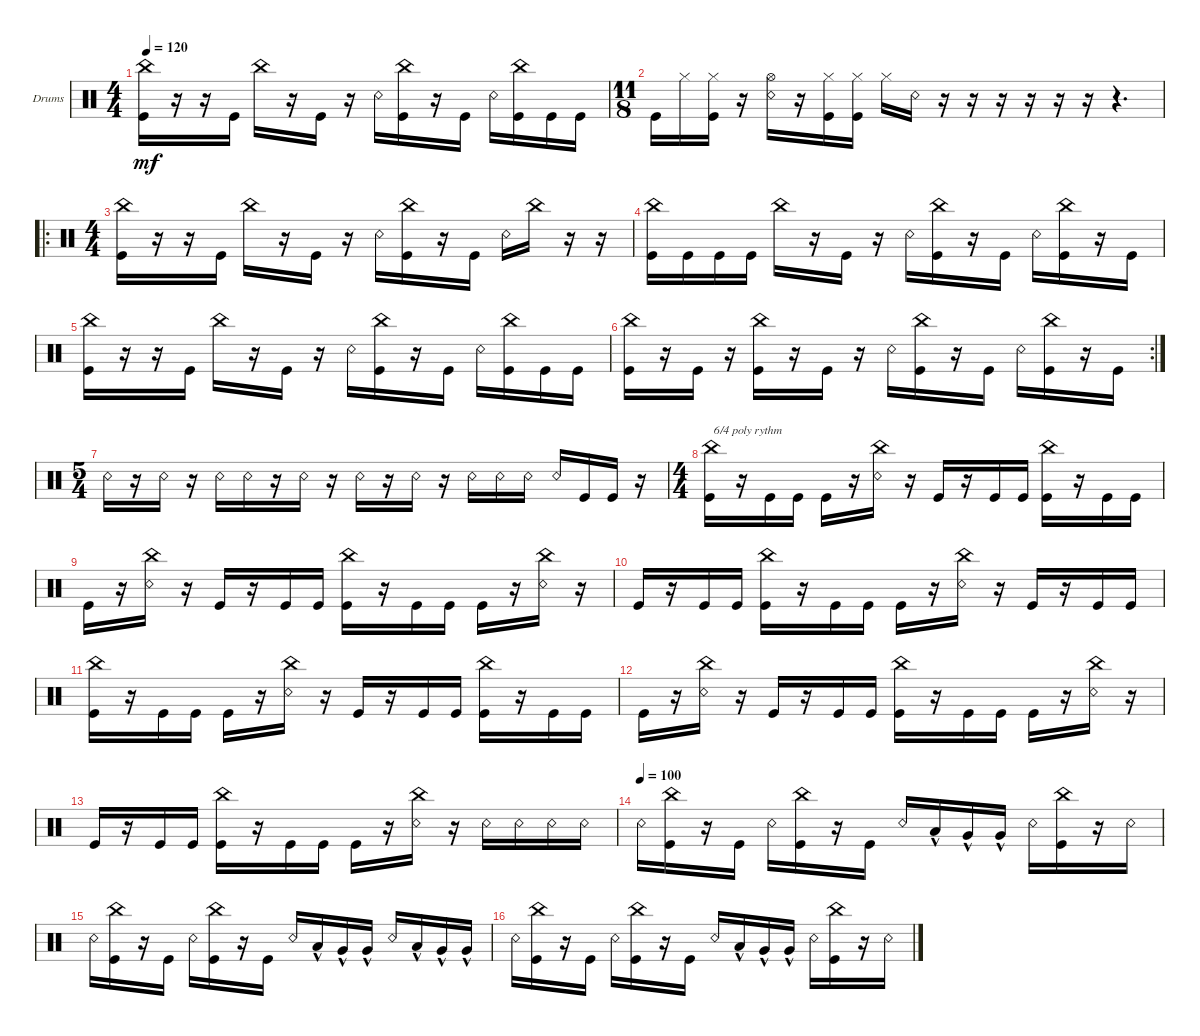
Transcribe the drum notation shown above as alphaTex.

\defaultSystemsLayout 4
\bracketExtendMode groupsimilarinstruments
\firstSystemTrackNameOrientation horizontal
\otherSystemsTrackNameOrientation horizontal
\track ("Drumkit" "Drums") {instrument percussion}
\staff {score}
\articulation defaults
\ts (4 4)
\tempo 120
\clef neutral
\ks c
("Kick (hit)" "China (hit)").16{dy mf} r.16 r.16 "Kick (hit)".16 "China (hit)".16 r.16 "Kick (hit)".16 r.16 "Snare (rim shot)".16 ("Kick (hit)" "China (hit)").16 r.16 "Kick (hit)".16 "Snare (rim shot)".16 ("Kick (hit)" "China (hit)").16 "Kick (hit)".16 "Kick (hit)".16 |
\ts (11 8)
"Kick (hit)".16 "Hi-Hat (closed)".16 ("Kick (hit)" "Hi-Hat (closed)").16 r.16 ("Snare (rim shot)" "Hi-Hat (open)").16 r.16 ("Kick (hit)" "Hi-Hat (closed)").16 ("Kick (hit)" "Hi-Hat (closed)").16 "Hi-Hat (closed)".16 "Snare (rim shot)".16 r.16 r.16 r.16 r.16 r.16 r.16 r.4{d} |
\ro
\ts (4 4)
("Kick (hit)" "China (hit)").16 r.16 r.16 "Kick (hit)".16 "China (hit)".16 r.16 "Kick (hit)".16 r.16 "Snare (rim shot)".16 ("Kick (hit)" "China (hit)").16 r.16 "Kick (hit)".16 "Snare (rim shot)".16 "China (hit)".16 r.16 r.16 |
("Kick (hit)" "China (hit)").16 "Kick (hit)".16 "Kick (hit)".16 "Kick (hit)".16 "China (hit)".16 r.16 "Kick (hit)".16 r.16 "Snare (rim shot)".16 ("Kick (hit)" "China (hit)").16 r.16 "Kick (hit)".16 "Snare (rim shot)".16 ("Kick (hit)" "China (hit)").16 r.16 "Kick (hit)".16 |
("Kick (hit)" "China (hit)").16 r.16 r.16 "Kick (hit)".16 "China (hit)".16 r.16 "Kick (hit)".16 r.16 "Snare (rim shot)".16 ("Kick (hit)" "China (hit)").16 r.16 "Kick (hit)".16 "Snare (rim shot)".16 ("Kick (hit)" "China (hit)").16 "Kick (hit)".16 "Kick (hit)".16 |
\rc 2
("Kick (hit)" "China (hit)").16 r.16 "Kick (hit)".16 r.16 ("China (hit)" "Kick (hit)").16 r.16 "Kick (hit)".16 r.16 "Snare (rim shot)".16 ("Kick (hit)" "China (hit)").16 r.16 "Kick (hit)".16 "Snare (rim shot)".16 ("Kick (hit)" "China (hit)").16 r.16 "Kick (hit)".16 |
\ts (5 4)
"Snare (rim shot)".16 r.16 "Snare (rim shot)".16 r.16 "Snare (rim shot)".16 "Snare (rim shot)".16 r.16 "Snare (rim shot)".16 r.16 "Snare (rim shot)".16 r.16 "Snare (rim shot)".16 r.16 "Snare (rim shot)".16 "Snare (rim shot)".16 "Snare (rim shot)".16 "Snare (rim shot)".16 "Kick (hit)".16 "Kick (hit)".16 r.16 |
\ts (4 4)
("Kick (hit)" "China (hit)").16{txt "6/4 poly rythm"} r.16 "Kick (hit)".16 "Kick (hit)".16 "Kick (hit)".16 r.16 ("Snare (rim shot)" "China (hit)").16 r.16 "Kick (hit)".16 r.16 "Kick (hit)".16 "Kick (hit)".16 ("Kick (hit)" "China (hit)").16 r.16 "Kick (hit)".16 "Kick (hit)".16 |
"Kick (hit)".16 r.16 ("Snare (rim shot)" "China (hit)").16 r.16 "Kick (hit)".16 r.16 "Kick (hit)".16 "Kick (hit)".16 ("Kick (hit)" "China (hit)").16 r.16 "Kick (hit)".16 "Kick (hit)".16 "Kick (hit)".16 r.16 ("Snare (rim shot)" "China (hit)").16 r.16 |
"Kick (hit)".16 r.16 "Kick (hit)".16 "Kick (hit)".16 ("Kick (hit)" "China (hit)").16 r.16 "Kick (hit)".16 "Kick (hit)".16 "Kick (hit)".16 r.16 ("Snare (rim shot)" "China (hit)").16 r.16 "Kick (hit)".16 r.16 "Kick (hit)".16 "Kick (hit)".16 |
("Kick (hit)" "China (hit)").16 r.16 "Kick (hit)".16 "Kick (hit)".16 "Kick (hit)".16 r.16 ("Snare (rim shot)" "China (hit)").16 r.16 "Kick (hit)".16 r.16 "Kick (hit)".16 "Kick (hit)".16 ("Kick (hit)" "China (hit)").16 r.16 "Kick (hit)".16 "Kick (hit)".16 |
"Kick (hit)".16 r.16 ("Snare (rim shot)" "China (hit)").16 r.16 "Kick (hit)".16 r.16 "Kick (hit)".16 "Kick (hit)".16 ("Kick (hit)" "China (hit)").16 r.16 "Kick (hit)".16 "Kick (hit)".16 "Kick (hit)".16 r.16 ("Snare (rim shot)" "China (hit)").16 r.16 |
"Kick (hit)".16 r.16 "Kick (hit)".16 "Kick (hit)".16 ("Kick (hit)" "China (hit)").16 r.16 "Kick (hit)".16 "Kick (hit)".16 "Kick (hit)".16 r.16 ("Snare (rim shot)" "China (hit)").16 r.16 "Snare (rim shot)".16 "Snare (rim shot)".16 "Snare (rim shot)".16 "Snare (rim shot)".16 |
\tempo (100)
"Snare (rim shot)".16 ("China (hit)" "Kick (hit)").16 r.16 "Kick (hit)".16 "Snare (rim shot)".16 ("China (hit)" "Kick (hit)").16 r.16 "Kick (hit)".16 "Snare (rim shot)".16 "Low Tom (hit)"{hac}.16 "Very Low Tom (hit)"{hac}.16 "Very Low Tom (hit)"{hac}.16 "Snare (rim shot)".16 ("China (hit)" "Kick (hit)").16 r.16 "Snare (rim shot)".16 |
"Snare (rim shot)".16 ("China (hit)" "Kick (hit)").16 r.16 "Kick (hit)".16 "Snare (rim shot)".16 ("China (hit)" "Kick (hit)").16 r.16 "Kick (hit)".16 "Snare (rim shot)".16 "Low Tom (hit)"{hac}.16 "Very Low Tom (hit)"{hac}.16 "Very Low Tom (hit)"{hac}.16 "Snare (rim shot)".16 "Low Tom (hit)"{hac}.16 "Very Low Tom (hit)"{hac}.16 "Very Low Tom (hit)"{hac}.16 |
"Snare (rim shot)".16 ("China (hit)" "Kick (hit)").16 r.16 "Kick (hit)".16 "Snare (rim shot)".16 ("China (hit)" "Kick (hit)").16 r.16 "Kick (hit)".16 "Snare (rim shot)".16 "Low Tom (hit)"{hac}.16 "Very Low Tom (hit)"{hac}.16 "Very Low Tom (hit)"{hac}.16 "Snare (rim shot)".16 ("China (hit)" "Kick (hit)").16 r.16 "Snare (rim shot)".16
